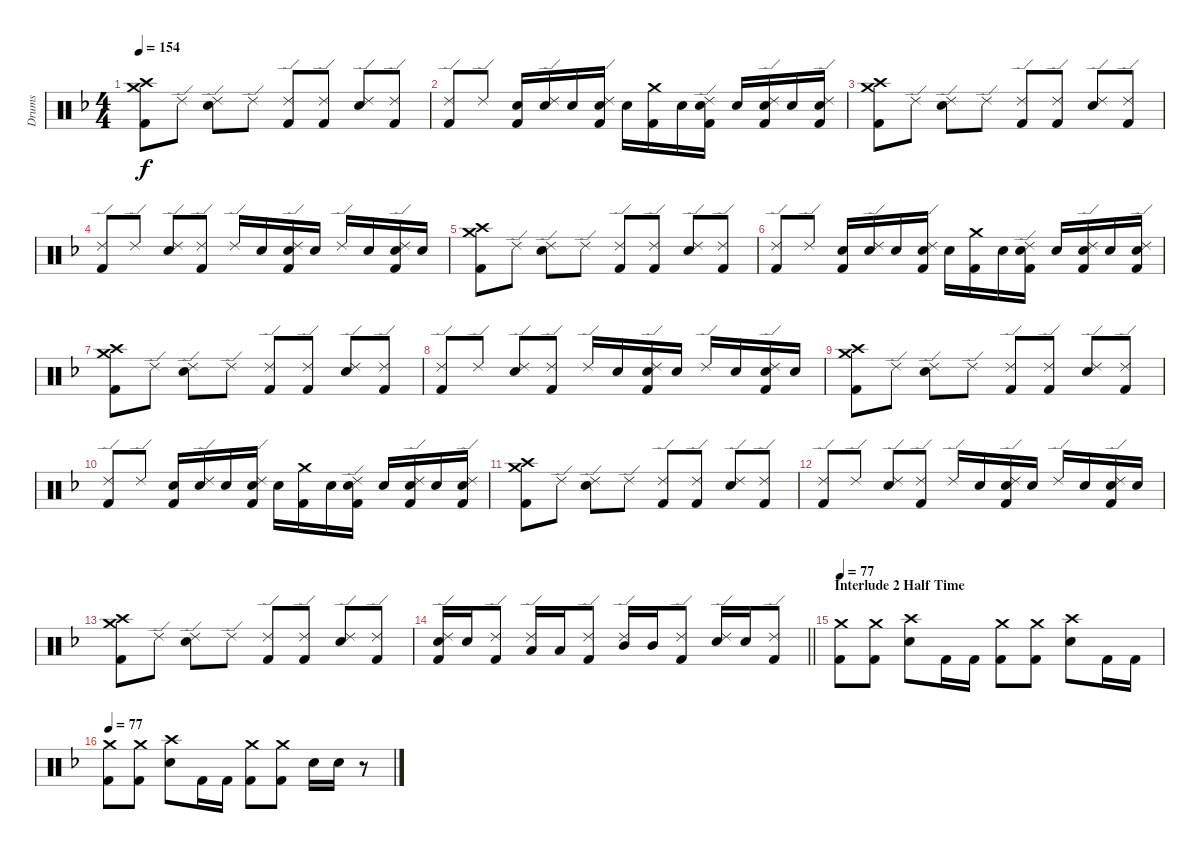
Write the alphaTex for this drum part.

\track ("Drums" "Drums") {instrument percussion}
\staff {score}
\articulation defaults
\ts (4 4)
\tempo 154
\clef neutral
\ks f
("Crash high (hit)" "Crash medium (hit)" "Kick (hit) 2").8{dy f} "Ride (edge) 2".8 ("Ride (edge) 2" "Electric Snare (hit)").8 "Ride (edge) 2".8 ("Ride (edge) 2" "Kick (hit) 2").8 ("Ride (edge) 2" "Kick (hit) 2").8 ("Ride (edge) 2" "Electric Snare (hit)").8 ("Ride (edge) 2" "Kick (hit) 2").8 |
("Ride (edge) 2" "Kick (hit) 2").8 "Ride (edge) 2".8 ("Electric Snare (hit)" "Kick (hit) 2").16 ("Ride (edge) 2" "Electric Snare (hit)").16 "Electric Snare (hit)".16 ("Ride (edge) 2" "Electric Snare (hit)" "Kick (hit) 2").16 "Electric Snare (hit)".16 ("Crash medium (hit)" "Kick (hit) 2").16 "Electric Snare (hit)".16 ("Ride (edge) 2" "Electric Snare (hit)" "Kick (hit) 2").16 "Electric Snare (hit)".16 ("Ride (edge) 2" "Electric Snare (hit)" "Kick (hit) 2").16 "Electric Snare (hit)".16 ("Ride (edge) 2" "Electric Snare (hit)" "Kick (hit) 2").16 |
("Crash high (hit)" "Crash medium (hit)" "Kick (hit) 2").8 "Ride (edge) 2".8 ("Ride (edge) 2" "Electric Snare (hit)").8 "Ride (edge) 2".8 ("Ride (edge) 2" "Kick (hit) 2").8 ("Ride (edge) 2" "Kick (hit) 2").8 ("Ride (edge) 2" "Electric Snare (hit)").8 ("Ride (edge) 2" "Kick (hit) 2").8 |
("Ride (edge) 2" "Kick (hit) 2").8 "Ride (edge) 2".8 ("Ride (edge) 2" "Electric Snare (hit)").8 ("Ride (edge) 2" "Kick (hit) 2").8 "Ride (edge) 2".16 "Electric Snare (hit)".16 ("Ride (edge) 2" "Electric Snare (hit)" "Kick (hit) 2").16 "Electric Snare (hit)".16 "Ride (edge) 2".16 "Electric Snare (hit)".16 ("Ride (edge) 2" "Electric Snare (hit)" "Kick (hit) 2").16 "Electric Snare (hit)".16 |
("Crash high (hit)" "Crash medium (hit)" "Kick (hit) 2").8 "Ride (edge) 2".8 ("Ride (edge) 2" "Electric Snare (hit)").8 "Ride (edge) 2".8 ("Ride (edge) 2" "Kick (hit) 2").8 ("Ride (edge) 2" "Kick (hit) 2").8 ("Ride (edge) 2" "Electric Snare (hit)").8 ("Ride (edge) 2" "Kick (hit) 2").8 |
("Ride (edge) 2" "Kick (hit) 2").8 "Ride (edge) 2".8 ("Electric Snare (hit)" "Kick (hit) 2").16 ("Ride (edge) 2" "Electric Snare (hit)").16 "Electric Snare (hit)".16 ("Ride (edge) 2" "Electric Snare (hit)" "Kick (hit) 2").16 "Electric Snare (hit)".16 ("Crash medium (hit)" "Kick (hit) 2").16 "Electric Snare (hit)".16 ("Ride (edge) 2" "Electric Snare (hit)" "Kick (hit) 2").16 "Electric Snare (hit)".16 ("Ride (edge) 2" "Electric Snare (hit)" "Kick (hit) 2").16 "Electric Snare (hit)".16 ("Ride (edge) 2" "Electric Snare (hit)" "Kick (hit) 2").16 |
("Crash high (hit)" "Crash medium (hit)" "Kick (hit) 2").8 "Ride (edge) 2".8 ("Ride (edge) 2" "Electric Snare (hit)").8 "Ride (edge) 2".8 ("Ride (edge) 2" "Kick (hit) 2").8 ("Ride (edge) 2" "Kick (hit) 2").8 ("Ride (edge) 2" "Electric Snare (hit)").8 ("Ride (edge) 2" "Kick (hit) 2").8 |
("Ride (edge) 2" "Kick (hit) 2").8 "Ride (edge) 2".8 ("Ride (edge) 2" "Electric Snare (hit)").8 ("Ride (edge) 2" "Kick (hit) 2").8 "Ride (edge) 2".16 "Electric Snare (hit)".16 ("Ride (edge) 2" "Electric Snare (hit)" "Kick (hit) 2").16 "Electric Snare (hit)".16 "Ride (edge) 2".16 "Electric Snare (hit)".16 ("Ride (edge) 2" "Electric Snare (hit)" "Kick (hit) 2").16 "Electric Snare (hit)".16 |
("Crash high (hit)" "Crash medium (hit)" "Kick (hit) 2").8 "Ride (edge) 2".8 ("Ride (edge) 2" "Electric Snare (hit)").8 "Ride (edge) 2".8 ("Ride (edge) 2" "Kick (hit) 2").8 ("Ride (edge) 2" "Kick (hit) 2").8 ("Ride (edge) 2" "Electric Snare (hit)").8 ("Ride (edge) 2" "Kick (hit) 2").8 |
("Ride (edge) 2" "Kick (hit) 2").8 "Ride (edge) 2".8 ("Electric Snare (hit)" "Kick (hit) 2").16 ("Ride (edge) 2" "Electric Snare (hit)").16 "Electric Snare (hit)".16 ("Ride (edge) 2" "Electric Snare (hit)" "Kick (hit) 2").16 "Electric Snare (hit)".16 ("Crash medium (hit)" "Kick (hit) 2").16 "Electric Snare (hit)".16 ("Ride (edge) 2" "Electric Snare (hit)" "Kick (hit) 2").16 "Electric Snare (hit)".16 ("Ride (edge) 2" "Electric Snare (hit)" "Kick (hit) 2").16 "Electric Snare (hit)".16 ("Ride (edge) 2" "Electric Snare (hit)" "Kick (hit) 2").16 |
("Crash high (hit)" "Crash medium (hit)" "Kick (hit) 2").8 "Ride (edge) 2".8 ("Ride (edge) 2" "Electric Snare (hit)").8 "Ride (edge) 2".8 ("Ride (edge) 2" "Kick (hit) 2").8 ("Ride (edge) 2" "Kick (hit) 2").8 ("Ride (edge) 2" "Electric Snare (hit)").8 ("Ride (edge) 2" "Kick (hit) 2").8 |
("Ride (edge) 2" "Kick (hit) 2").8 "Ride (edge) 2".8 ("Ride (edge) 2" "Electric Snare (hit)").8 ("Ride (edge) 2" "Kick (hit) 2").8 "Ride (edge) 2".16 "Electric Snare (hit)".16 ("Ride (edge) 2" "Electric Snare (hit)" "Kick (hit) 2").16 "Electric Snare (hit)".16 "Ride (edge) 2".16 "Electric Snare (hit)".16 ("Ride (edge) 2" "Electric Snare (hit)" "Kick (hit) 2").16 "Electric Snare (hit)".16 |
("Crash high (hit)" "Crash medium (hit)" "Kick (hit) 2").8 "Ride (edge) 2".8 ("Ride (edge) 2" "Electric Snare (hit)").8 "Ride (edge) 2".8 ("Ride (edge) 2" "Kick (hit) 2").8 ("Ride (edge) 2" "Kick (hit) 2").8 ("Ride (edge) 2" "Electric Snare (hit)").8 ("Ride (edge) 2" "Kick (hit) 2").8 |
\barLineRight lightlight
("Ride (edge) 2" "Electric Snare (hit)" "Kick (hit) 2").16 "Electric Snare (hit)".16 ("Ride (edge) 2" "Kick (hit) 2").8 ("Ride (edge) 2" "Low Tom (hit)").16 "Low Tom (hit)".16 ("Ride (edge) 2" "Kick (hit) 2").8 ("Ride (edge) 2" "Mid Tom (hit)").16 "Mid Tom (hit)".16 ("Ride (edge) 2" "Kick (hit) 2").8 ("Ride (edge) 2" "Electric Snare (hit)").16 "Electric Snare (hit)".16 ("Ride (edge) 2" "Kick (hit) 2").8 |
\section ("" "Interlude 2 Half Time")
\tempo 77
("Crash medium (hit)" "Kick (hit) 2").8 ("Crash medium (hit)" "Kick (hit) 2").8 ("Crash high (hit)" "Electric Snare (hit)").8 "Kick (hit) 2".16 "Kick (hit) 2".16 ("Crash medium (hit)" "Kick (hit) 2").8 ("Crash medium (hit)" "Kick (hit) 2").8 ("Crash high (hit)" "Electric Snare (hit)").8 "Kick (hit) 2".16 "Kick (hit) 2".16 |
\tempo 77
("Crash medium (hit)" "Kick (hit) 2").8 ("Crash medium (hit)" "Kick (hit) 2").8 ("Crash high (hit)" "Electric Snare (hit)").8 "Kick (hit) 2".16 "Kick (hit) 2".16 ("Crash medium (hit)" "Kick (hit) 2").8 ("Crash medium (hit)" "Kick (hit) 2").8 "Electric Snare (hit)".16 "Electric Snare (hit)".16 r.8
